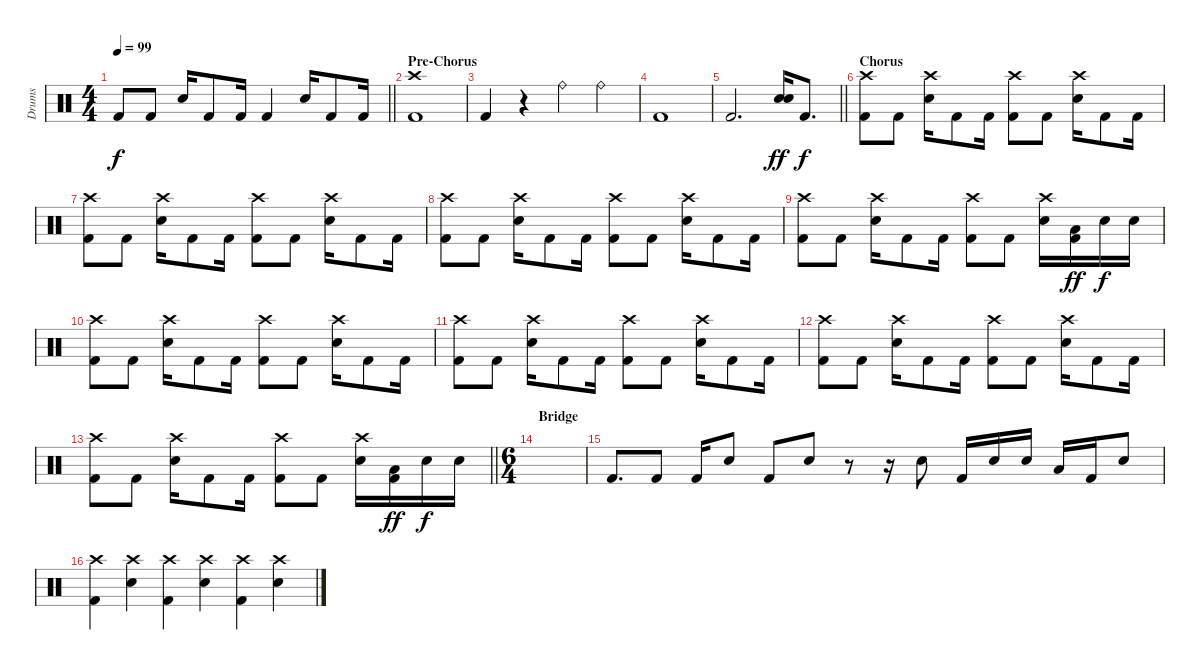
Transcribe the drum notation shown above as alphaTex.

\track ("Drums" "Drums") {instrument percussion}
\staff {score}
\articulation defaults
\ts (4 4)
\tempo 99
\clef neutral
\barLineRight lightlight
\ks c "Kick (hit) 2".8{dy f} "Kick (hit) 2".8 "Electric Snare (hit)".16 "Kick (hit) 2".8 "Kick (hit) 2".16 "Kick (hit) 2".4 "Electric Snare (hit)".16 "Kick (hit) 2".8 "Kick (hit) 2".16
|
\section ("" "Pre-Chorus")
("Crash high (hit)" "Kick (hit) 2").1 |
"Kick (hit) 2".4 r.4 "Ride (bell)".4 "Ride (bell)".4 |
"Kick (hit) 2".1 |
\barLineRight lightlight "Kick (hit) 2".2{d}
("Snare (hit) 2" "Electric Snare (hit)").16{dy ff} "Kick (hit) 2".8{d dy f} |
\section ("" "Chorus")
("Crash high (hit)" "Kick (hit) 2").8 "Kick (hit) 2".8 ("Crash high (hit)" "Electric Snare (hit)").16 "Kick (hit) 2".8 "Kick (hit) 2".16 ("Crash high (hit)" "Kick (hit) 2").8 "Kick (hit) 2".8 ("Crash high (hit)" "Electric Snare (hit)").16 "Kick (hit) 2".8 "Kick (hit) 2".16 |
("Crash high (hit)" "Kick (hit) 2").8 "Kick (hit) 2".8 ("Crash high (hit)" "Electric Snare (hit)").16 "Kick (hit) 2".8 "Kick (hit) 2".16 ("Crash high (hit)" "Kick (hit) 2").8 "Kick (hit) 2".8 ("Crash high (hit)" "Electric Snare (hit)").16 "Kick (hit) 2".8 "Kick (hit) 2".16 |
("Crash high (hit)" "Kick (hit) 2").8 "Kick (hit) 2".8 ("Crash high (hit)" "Electric Snare (hit)").16 "Kick (hit) 2".8 "Kick (hit) 2".16 ("Crash high (hit)" "Kick (hit) 2").8 "Kick (hit) 2".8 ("Crash high (hit)" "Electric Snare (hit)").16 "Kick (hit) 2".8 "Kick (hit) 2".16 |
("Crash high (hit)" "Kick (hit) 2").8 "Kick (hit) 2".8 ("Crash high (hit)" "Electric Snare (hit)").16 "Kick (hit) 2".8 "Kick (hit) 2".16 ("Crash high (hit)" "Kick (hit) 2").8 "Kick (hit) 2".8 ("Crash high (hit)" "Electric Snare (hit)").16 ("Low Floor Tom (hit)" "Kick (hit) 2").16{dy ff} "Electric Snare (hit)".16{dy f} "Electric Snare (hit)".16 |
("Crash high (hit)" "Kick (hit) 2").8 "Kick (hit) 2".8 ("Crash high (hit)" "Electric Snare (hit)").16 "Kick (hit) 2".8 "Kick (hit) 2".16 ("Crash high (hit)" "Kick (hit) 2").8 "Kick (hit) 2".8 ("Crash high (hit)" "Electric Snare (hit)").16 "Kick (hit) 2".8 "Kick (hit) 2".16 |
("Crash high (hit)" "Kick (hit) 2").8 "Kick (hit) 2".8 ("Crash high (hit)" "Electric Snare (hit)").16 "Kick (hit) 2".8 "Kick (hit) 2".16 ("Crash high (hit)" "Kick (hit) 2").8 "Kick (hit) 2".8 ("Crash high (hit)" "Electric Snare (hit)").16 "Kick (hit) 2".8 "Kick (hit) 2".16 |
("Crash high (hit)" "Kick (hit) 2").8 "Kick (hit) 2".8 ("Crash high (hit)" "Electric Snare (hit)").16 "Kick (hit) 2".8 "Kick (hit) 2".16 ("Crash high (hit)" "Kick (hit) 2").8 "Kick (hit) 2".8 ("Crash high (hit)" "Electric Snare (hit)").16 "Kick (hit) 2".8 "Kick (hit) 2".16 |
\barLineRight lightlight
("Crash high (hit)" "Kick (hit) 2").8 "Kick (hit) 2".8 ("Crash high (hit)" "Electric Snare (hit)").16 "Kick (hit) 2".8 "Kick (hit) 2".16 ("Crash high (hit)" "Kick (hit) 2").8 "Kick (hit) 2".8 ("Crash high (hit)" "Electric Snare (hit)").16 ("Low Floor Tom (hit)" "Kick (hit) 2").16{dy ff} "Electric Snare (hit)".16{dy f} "Electric Snare (hit)".16 |
\ts (6 4)
\section ("" "Bridge")
|
"Kick (hit) 2".8{d} "Kick (hit) 2".8 "Kick (hit) 2".16 "Electric Snare (hit)".8 "Kick (hit) 2".8 "Electric Snare (hit)".8 r.8 r.16 "Electric Snare (hit)".8 "Kick (hit) 2".16 "Electric Snare (hit)".16 "Electric Snare (hit)".16 "Low Floor Tom (hit)".16 "Kick (hit) 2".16 "Electric Snare (hit)".8 |
("Crash high (hit)" "Kick (hit) 2").4 ("Crash high (hit)" "Electric Snare (hit)").4 ("Crash high (hit)" "Kick (hit) 2").4 ("Crash high (hit)" "Electric Snare (hit)").4 ("Crash high (hit)" "Kick (hit) 2").4 ("Crash high (hit)" "Electric Snare (hit)").4
